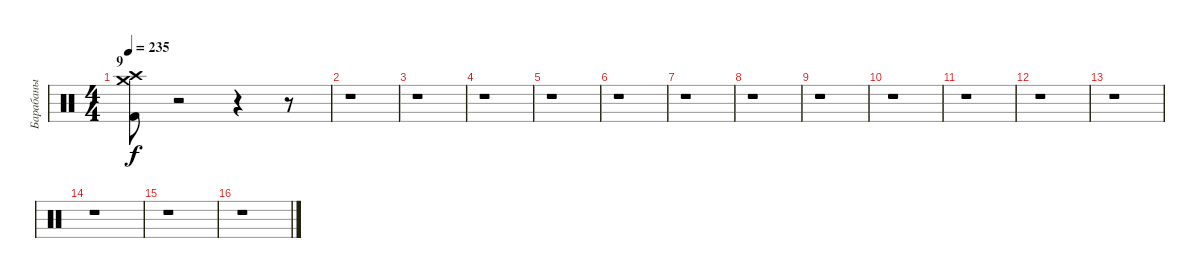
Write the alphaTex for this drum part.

\track ("Барабаны" "Барабаны") {instrument percussion}
\staff {score}
\articulation defaults
\ts (4 4)
\section ("" "9")
\tempo 235
\clef neutral
\ks c
("Crash medium (hit)" "Crash high (hit)" "Kick (hit) 2").8{dy f} r.2 r.4 r.8 |
r.1 |
r.1 |
r.1 |
r.1 |
r.1 |
r.1 |
r.1 |
r.1 |
r.1 |
r.1 |
r.1 |
r.1 |
r.1 |
r.1 |
r.1
